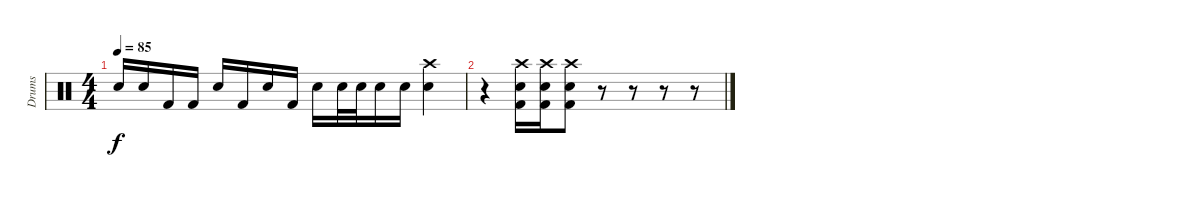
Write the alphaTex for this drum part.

\track ("Drums" "Drums") {instrument percussion}
\staff {score}
\articulation defaults
\ts (4 4)
\tempo 85
\clef neutral
\ks c "Electric Snare (hit)".16{dy f} "Electric Snare (hit)".16 "Kick (hit) 2".16 "Kick (hit) 2".16 "Electric Snare (hit)".16 "Kick (hit) 2".16 "Electric Snare (hit)".16 "Kick (hit) 2".16 "Electric Snare (hit)".16 "Electric Snare (hit)".32 "Electric Snare (hit)".32 "Electric Snare (hit)".16 "Electric Snare (hit)".16
("Crash high (hit)" "Electric Snare (hit)").4 |
r.4 ("Crash high (hit)" "Electric Snare (hit)" "Kick (hit) 2").16 ("Crash high (hit)" "Electric Snare (hit)" "Kick (hit) 2").16 ("Crash high (hit)" "Electric Snare (hit)" "Kick (hit) 2").8 r.8 r.8 r.8 r.8
